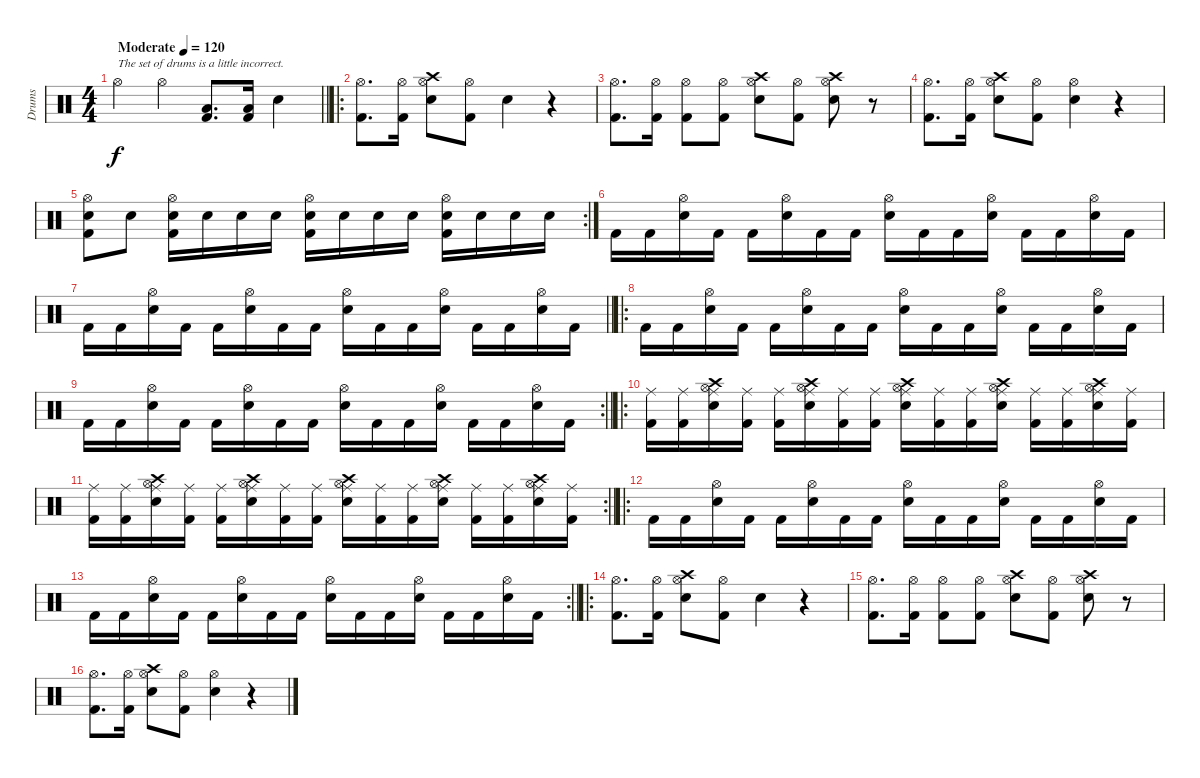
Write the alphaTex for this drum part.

\track ("Drums" "Drums") {instrument percussion}
\staff {score}
\articulation defaults
\ts (4 4)
\tempo (120 "Moderate")
\clef neutral
\barLineRight lightlight
\ks c "Hi-Hat (open)".4{txt "The set of drums is a little incorrect." dy f} "Hi-Hat (open)".4
("Kick (hit) 2" "Low Tom (hit)").8{d} ("Kick (hit) 2" "Low Tom (hit)").16 "Snare (hit) 2".4 |
\ro
\section ("" "")
("Hi-Hat (open)" "Kick (hit) 2").8{d} ("Hi-Hat (open)" "Kick (hit) 2").16 ("Hi-Hat (open)" "Crash high (hit)" "Snare (hit) 2").8 ("Hi-Hat (open)" "Kick (hit) 2").8 "Snare (hit) 2".4 r.4 |
("Hi-Hat (open)" "Kick (hit) 2").8{d} ("Hi-Hat (open)" "Kick (hit) 2").16 ("Hi-Hat (open)" "Kick (hit) 2").8 ("Hi-Hat (open)" "Kick (hit) 2").8 ("Hi-Hat (open)" "Crash high (hit)" "Snare (hit) 2").8 ("Hi-Hat (open)" "Kick (hit) 2").8 ("Hi-Hat (open)" "Crash high (hit)" "Snare (hit) 2").8 r.8 |
("Hi-Hat (open)" "Kick (hit) 2").8{d} ("Hi-Hat (open)" "Kick (hit) 2").16 ("Hi-Hat (open)" "Crash high (hit)" "Snare (hit) 2").8 ("Hi-Hat (open)" "Kick (hit) 2").8 ("Hi-Hat (open)" "Snare (hit) 2").4 r.4 |
\rc 2
("Hi-Hat (open)" "Snare (hit) 2" "Kick (hit) 2").8 "Snare (hit) 2".8 ("Hi-Hat (open)" "Snare (hit) 2" "Kick (hit) 2").16 "Snare (hit) 2".16 "Snare (hit) 2".16 "Snare (hit) 2".16 ("Hi-Hat (open)" "Snare (hit) 2" "Kick (hit) 2").16 "Snare (hit) 2".16 "Snare (hit) 2".16 "Snare (hit) 2".16 ("Hi-Hat (open)" "Snare (hit) 2" "Kick (hit) 2").16 "Snare (hit) 2".16 "Snare (hit) 2".16 "Snare (hit) 2".16 |
"Kick (hit) 2".16 "Kick (hit) 2".16 ("Hi-Hat (open)" "Snare (hit) 2").16 "Kick (hit) 2".16 "Kick (hit) 2".16 ("Hi-Hat (open)" "Snare (hit) 2").16 "Kick (hit) 2".16 "Kick (hit) 2".16 ("Hi-Hat (open)" "Snare (hit) 2").16 "Kick (hit) 2".16 "Kick (hit) 2".16 ("Hi-Hat (open)" "Snare (hit) 2").16 "Kick (hit) 2".16 "Kick (hit) 2".16 ("Hi-Hat (open)" "Snare (hit) 2").16 "Kick (hit) 2".16 |
\barLineRight lightlight "Kick (hit) 2".16 "Kick (hit) 2".16
("Hi-Hat (open)" "Snare (hit) 2").16 "Kick (hit) 2".16 "Kick (hit) 2".16 ("Hi-Hat (open)" "Snare (hit) 2").16 "Kick (hit) 2".16 "Kick (hit) 2".16 ("Hi-Hat (open)" "Snare (hit) 2").16 "Kick (hit) 2".16 "Kick (hit) 2".16 ("Hi-Hat (open)" "Snare (hit) 2").16 "Kick (hit) 2".16 "Kick (hit) 2".16 ("Hi-Hat (open)" "Snare (hit) 2").16 "Kick (hit) 2".16 |
\ro
\section ("" "")
"Kick (hit) 2".16 "Kick (hit) 2".16 ("Hi-Hat (open)" "Snare (hit) 2").16 "Kick (hit) 2".16 "Kick (hit) 2".16 ("Hi-Hat (open)" "Snare (hit) 2").16 "Kick (hit) 2".16 "Kick (hit) 2".16 ("Hi-Hat (open)" "Snare (hit) 2").16 "Kick (hit) 2".16 "Kick (hit) 2".16 ("Hi-Hat (open)" "Snare (hit) 2").16 "Kick (hit) 2".16 "Kick (hit) 2".16 ("Hi-Hat (open)" "Snare (hit) 2").16 "Kick (hit) 2".16 |
\rc 2
\barLineRight lightlight "Kick (hit) 2".16 "Kick (hit) 2".16
("Hi-Hat (open)" "Snare (hit) 2").16 "Kick (hit) 2".16 "Kick (hit) 2".16 ("Hi-Hat (open)" "Snare (hit) 2").16 "Kick (hit) 2".16 "Kick (hit) 2".16 ("Hi-Hat (open)" "Snare (hit) 2").16 "Kick (hit) 2".16 "Kick (hit) 2".16 ("Hi-Hat (open)" "Snare (hit) 2").16 "Kick (hit) 2".16 "Kick (hit) 2".16 ("Hi-Hat (open)" "Snare (hit) 2").16 "Kick (hit) 2".16 |
\ro
\section ("" "")
("Ride (middle)" "Kick (hit) 2").16 ("Ride (middle)" "Kick (hit) 2").16 ("Hi-Hat (open)" "Ride (middle)" "Crash high (hit)" "Snare (hit) 2").16 ("Ride (middle)" "Kick (hit) 2").16 ("Ride (middle)" "Kick (hit) 2").16 ("Hi-Hat (open)" "Ride (middle)" "Crash high (hit)" "Snare (hit) 2").16 ("Ride (middle)" "Kick (hit) 2").16 ("Ride (middle)" "Kick (hit) 2").16 ("Hi-Hat (open)" "Ride (middle)" "Crash high (hit)" "Snare (hit) 2").16 ("Ride (middle)" "Kick (hit) 2").16 ("Ride (middle)" "Kick (hit) 2").16 ("Hi-Hat (open)" "Ride (middle)" "Crash high (hit)" "Snare (hit) 2").16 ("Ride (middle)" "Kick (hit) 2").16 ("Ride (middle)" "Kick (hit) 2").16 ("Hi-Hat (open)" "Ride (middle)" "Crash high (hit)" "Snare (hit) 2").16 ("Ride (middle)" "Kick (hit) 2").16 |
\rc 2
\barLineRight lightlight
("Ride (middle)" "Kick (hit) 2").16 ("Ride (middle)" "Kick (hit) 2").16 ("Hi-Hat (open)" "Ride (middle)" "Crash high (hit)" "Snare (hit) 2").16 ("Ride (middle)" "Kick (hit) 2").16 ("Ride (middle)" "Kick (hit) 2").16 ("Hi-Hat (open)" "Ride (middle)" "Crash high (hit)" "Snare (hit) 2").16 ("Ride (middle)" "Kick (hit) 2").16 ("Ride (middle)" "Kick (hit) 2").16 ("Hi-Hat (open)" "Ride (middle)" "Crash high (hit)" "Snare (hit) 2").16 ("Ride (middle)" "Kick (hit) 2").16 ("Ride (middle)" "Kick (hit) 2").16 ("Hi-Hat (open)" "Ride (middle)" "Crash high (hit)" "Snare (hit) 2").16 ("Ride (middle)" "Kick (hit) 2").16 ("Ride (middle)" "Kick (hit) 2").16 ("Hi-Hat (open)" "Ride (middle)" "Crash high (hit)" "Snare (hit) 2").16 ("Ride (middle)" "Kick (hit) 2").16 |
\ro
\section ("" "")
"Kick (hit) 2".16 "Kick (hit) 2".16 ("Hi-Hat (open)" "Snare (hit) 2").16 "Kick (hit) 2".16 "Kick (hit) 2".16 ("Hi-Hat (open)" "Snare (hit) 2").16 "Kick (hit) 2".16 "Kick (hit) 2".16 ("Hi-Hat (open)" "Snare (hit) 2").16 "Kick (hit) 2".16 "Kick (hit) 2".16 ("Hi-Hat (open)" "Snare (hit) 2").16 "Kick (hit) 2".16 "Kick (hit) 2".16 ("Hi-Hat (open)" "Snare (hit) 2").16 "Kick (hit) 2".16 |
\rc 2
\barLineRight lightlight "Kick (hit) 2".16 "Kick (hit) 2".16
("Hi-Hat (open)" "Snare (hit) 2").16 "Kick (hit) 2".16 "Kick (hit) 2".16 ("Hi-Hat (open)" "Snare (hit) 2").16 "Kick (hit) 2".16 "Kick (hit) 2".16 ("Hi-Hat (open)" "Snare (hit) 2").16 "Kick (hit) 2".16 "Kick (hit) 2".16 ("Hi-Hat (open)" "Snare (hit) 2").16 "Kick (hit) 2".16 "Kick (hit) 2".16 ("Hi-Hat (open)" "Snare (hit) 2").16 "Kick (hit) 2".16 |
\ro
\section ("" "")
("Hi-Hat (open)" "Kick (hit) 2").8{d} ("Hi-Hat (open)" "Kick (hit) 2").16 ("Hi-Hat (open)" "Crash high (hit)" "Snare (hit) 2").8 ("Hi-Hat (open)" "Kick (hit) 2").8 "Snare (hit) 2".4 r.4 |
("Hi-Hat (open)" "Kick (hit) 2").8{d} ("Hi-Hat (open)" "Kick (hit) 2").16 ("Hi-Hat (open)" "Kick (hit) 2").8 ("Hi-Hat (open)" "Kick (hit) 2").8 ("Hi-Hat (open)" "Crash high (hit)" "Snare (hit) 2").8 ("Hi-Hat (open)" "Kick (hit) 2").8 ("Hi-Hat (open)" "Crash high (hit)" "Snare (hit) 2").8 r.8 |
("Hi-Hat (open)" "Kick (hit) 2").8{d} ("Hi-Hat (open)" "Kick (hit) 2").16 ("Hi-Hat (open)" "Crash high (hit)" "Snare (hit) 2").8 ("Hi-Hat (open)" "Kick (hit) 2").8 ("Hi-Hat (open)" "Snare (hit) 2").4 r.4
